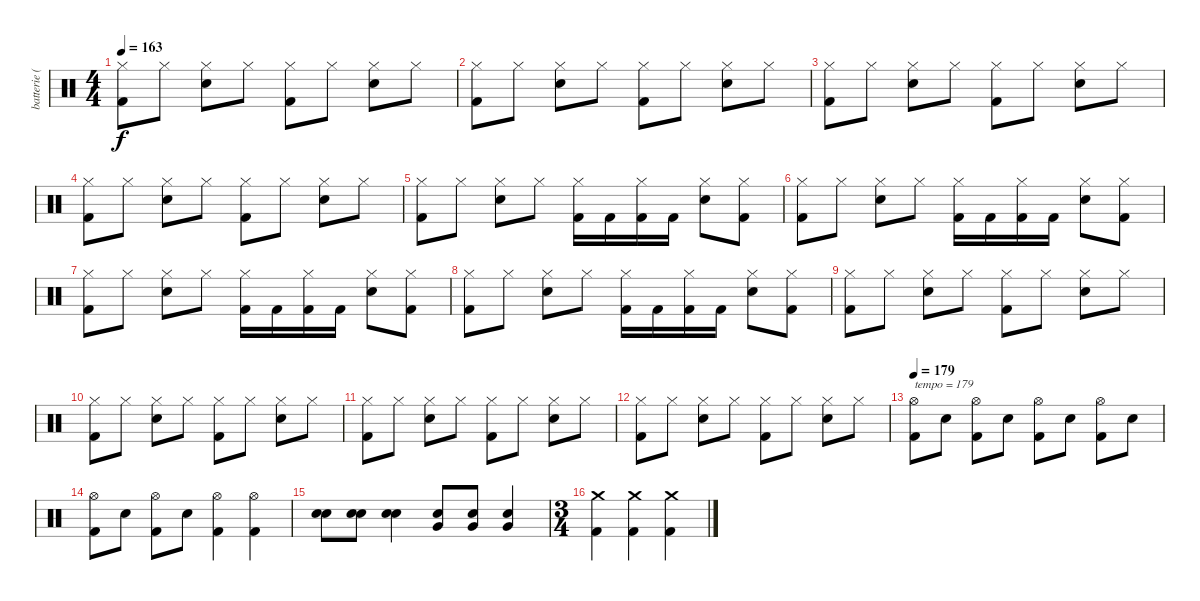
\track ("batterie ( Carlos ) " "batterie (") {instrument percussion}
\staff {score}
\articulation defaults
\ts (4 4)
\tempo 163
\clef neutral
\ks c
("Hi-Hat (closed)" "Kick (hit) 2").8{dy f} "Hi-Hat (closed)".8 ("Hi-Hat (closed)" "Electric Snare (hit)").8 "Hi-Hat (closed)".8 ("Hi-Hat (closed)" "Kick (hit) 2").8 "Hi-Hat (closed)".8 ("Hi-Hat (closed)" "Electric Snare (hit)").8 "Hi-Hat (closed)".8 |
("Hi-Hat (closed)" "Kick (hit) 2").8 "Hi-Hat (closed)".8 ("Hi-Hat (closed)" "Electric Snare (hit)").8 "Hi-Hat (closed)".8 ("Hi-Hat (closed)" "Kick (hit) 2").8 "Hi-Hat (closed)".8 ("Hi-Hat (closed)" "Electric Snare (hit)").8 "Hi-Hat (closed)".8 |
("Hi-Hat (closed)" "Kick (hit) 2").8 "Hi-Hat (closed)".8 ("Hi-Hat (closed)" "Electric Snare (hit)").8 "Hi-Hat (closed)".8 ("Hi-Hat (closed)" "Kick (hit) 2").8 "Hi-Hat (closed)".8 ("Hi-Hat (closed)" "Electric Snare (hit)").8 "Hi-Hat (closed)".8 |
("Hi-Hat (closed)" "Kick (hit) 2").8 "Hi-Hat (closed)".8 ("Hi-Hat (closed)" "Electric Snare (hit)").8 "Hi-Hat (closed)".8 ("Hi-Hat (closed)" "Kick (hit) 2").8 "Hi-Hat (closed)".8 ("Hi-Hat (closed)" "Electric Snare (hit)").8 "Hi-Hat (closed)".8 |
("Hi-Hat (closed)" "Kick (hit) 2").8 "Hi-Hat (closed)".8 ("Hi-Hat (closed)" "Electric Snare (hit)").8 "Hi-Hat (closed)".8 ("Hi-Hat (closed)" "Kick (hit) 2").16 "Kick (hit) 2".16 ("Hi-Hat (closed)" "Kick (hit) 2").16 "Kick (hit) 2".16 ("Hi-Hat (closed)" "Electric Snare (hit)").8 ("Hi-Hat (closed)" "Kick (hit) 2").8 |
("Hi-Hat (closed)" "Kick (hit) 2").8 "Hi-Hat (closed)".8 ("Hi-Hat (closed)" "Electric Snare (hit)").8 "Hi-Hat (closed)".8 ("Hi-Hat (closed)" "Kick (hit) 2").16 "Kick (hit) 2".16 ("Hi-Hat (closed)" "Kick (hit) 2").16 "Kick (hit) 2".16 ("Hi-Hat (closed)" "Electric Snare (hit)").8 ("Hi-Hat (closed)" "Kick (hit) 2").8 |
("Hi-Hat (closed)" "Kick (hit) 2").8 "Hi-Hat (closed)".8 ("Hi-Hat (closed)" "Electric Snare (hit)").8 "Hi-Hat (closed)".8 ("Hi-Hat (closed)" "Kick (hit) 2").16 "Kick (hit) 2".16 ("Hi-Hat (closed)" "Kick (hit) 2").16 "Kick (hit) 2".16 ("Hi-Hat (closed)" "Electric Snare (hit)").8 ("Hi-Hat (closed)" "Kick (hit) 2").8 |
("Hi-Hat (closed)" "Kick (hit) 2").8 "Hi-Hat (closed)".8 ("Hi-Hat (closed)" "Electric Snare (hit)").8 "Hi-Hat (closed)".8 ("Hi-Hat (closed)" "Kick (hit) 2").16 "Kick (hit) 2".16 ("Hi-Hat (closed)" "Kick (hit) 2").16 "Kick (hit) 2".16 ("Hi-Hat (closed)" "Electric Snare (hit)").8 ("Hi-Hat (closed)" "Kick (hit) 2").8 |
("Hi-Hat (closed)" "Kick (hit) 2").8 "Hi-Hat (closed)".8 ("Hi-Hat (closed)" "Electric Snare (hit)").8 "Hi-Hat (closed)".8 ("Hi-Hat (closed)" "Kick (hit) 2").8 "Hi-Hat (closed)".8 ("Hi-Hat (closed)" "Electric Snare (hit)").8 "Hi-Hat (closed)".8 |
("Hi-Hat (closed)" "Kick (hit) 2").8 "Hi-Hat (closed)".8 ("Hi-Hat (closed)" "Electric Snare (hit)").8 "Hi-Hat (closed)".8 ("Hi-Hat (closed)" "Kick (hit) 2").8 "Hi-Hat (closed)".8 ("Hi-Hat (closed)" "Electric Snare (hit)").8 "Hi-Hat (closed)".8 |
("Hi-Hat (closed)" "Kick (hit) 2").8 "Hi-Hat (closed)".8 ("Hi-Hat (closed)" "Electric Snare (hit)").8 "Hi-Hat (closed)".8 ("Hi-Hat (closed)" "Kick (hit) 2").8 "Hi-Hat (closed)".8 ("Hi-Hat (closed)" "Electric Snare (hit)").8 "Hi-Hat (closed)".8 |
("Hi-Hat (closed)" "Kick (hit) 2").8 "Hi-Hat (closed)".8 ("Hi-Hat (closed)" "Electric Snare (hit)").8 "Hi-Hat (closed)".8 ("Hi-Hat (closed)" "Kick (hit) 2").8 "Hi-Hat (closed)".8 ("Hi-Hat (closed)" "Electric Snare (hit)").8 "Hi-Hat (closed)".8 |
\tempo 179
("Hi-Hat (open)" "Kick (hit) 2").8{txt "tempo = 179"} "Electric Snare (hit)".8 ("Hi-Hat (open)" "Kick (hit) 2").8 "Electric Snare (hit)".8 ("Hi-Hat (open)" "Kick (hit) 2").8 "Electric Snare (hit)".8 ("Hi-Hat (open)" "Kick (hit) 2").8 "Electric Snare (hit)".8 |
("Hi-Hat (open)" "Kick (hit) 2").8 "Electric Snare (hit)".8 ("Hi-Hat (open)" "Kick (hit) 2").8 "Electric Snare (hit)".8 ("Hi-Hat (open)" "Kick (hit) 2").4 ("Hi-Hat (open)" "Kick (hit) 2").4 |
("Snare (hit) 2" "Electric Snare (hit)").8 ("Snare (hit) 2" "Electric Snare (hit)").8 ("Snare (hit) 2" "Electric Snare (hit)").4 ("Very Low Tom (hit)" "Electric Snare (hit)").8 ("Very Low Tom (hit)" "Electric Snare (hit)").8 ("Very Low Tom (hit)" "Electric Snare (hit)").4 |
\ts (3 4)
("Crash medium (hit)" "Kick (hit) 2").4 ("Crash medium (hit)" "Kick (hit) 2").4 ("Crash medium (hit)" "Kick (hit) 2").4
